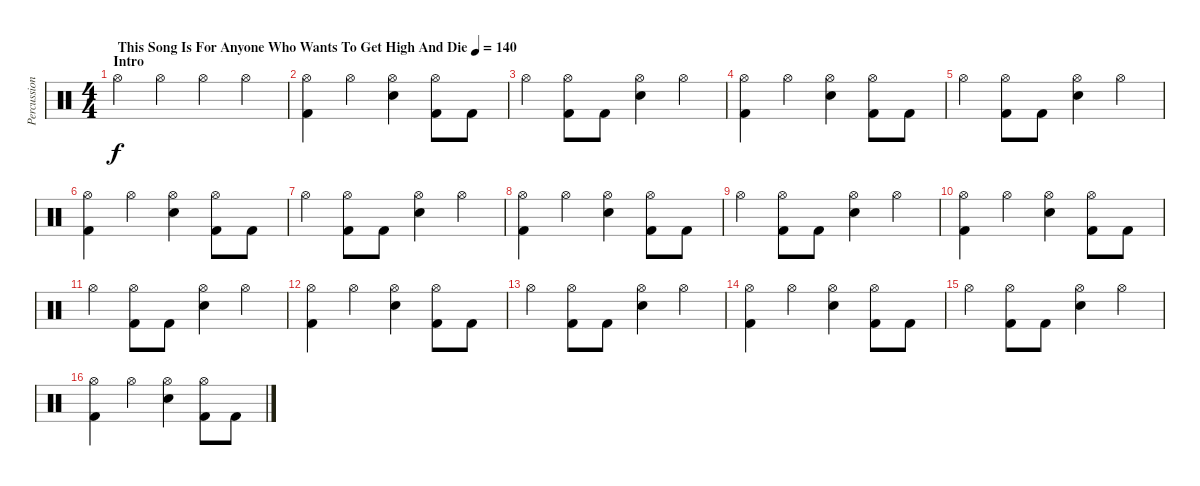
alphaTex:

\track ("Percussion" "Percussion") {instrument percussion}
\staff {score}
\articulation defaults
\ts (4 4)
\section ("" "Intro")
\tempo (140 "This Song Is For Anyone Who Wants To Get High And Die")
\clef neutral
\ks c "Hi-Hat (open)".4{dy f} "Hi-Hat (open)".4 "Hi-Hat (open)".4 "Hi-Hat (open)".4
|
("Hi-Hat (open)" "Kick (hit) 2").4 "Hi-Hat (open)".4 ("Hi-Hat (open)" "Electric Snare (hit)").4 ("Hi-Hat (open)" "Kick (hit) 2").8 "Kick (hit) 2".8 |
"Hi-Hat (open)".4 ("Hi-Hat (open)" "Kick (hit) 2").8 "Kick (hit) 2".8 ("Hi-Hat (open)" "Electric Snare (hit)").4 "Hi-Hat (open)".4 |
("Hi-Hat (open)" "Kick (hit) 2").4 "Hi-Hat (open)".4 ("Hi-Hat (open)" "Electric Snare (hit)").4 ("Hi-Hat (open)" "Kick (hit) 2").8 "Kick (hit) 2".8 |
"Hi-Hat (open)".4 ("Hi-Hat (open)" "Kick (hit) 2").8 "Kick (hit) 2".8 ("Hi-Hat (open)" "Electric Snare (hit)").4 "Hi-Hat (open)".4 |
("Hi-Hat (open)" "Kick (hit) 2").4 "Hi-Hat (open)".4 ("Hi-Hat (open)" "Electric Snare (hit)").4 ("Hi-Hat (open)" "Kick (hit) 2").8 "Kick (hit) 2".8 |
"Hi-Hat (open)".4 ("Hi-Hat (open)" "Kick (hit) 2").8 "Kick (hit) 2".8 ("Hi-Hat (open)" "Electric Snare (hit)").4 "Hi-Hat (open)".4 |
("Hi-Hat (open)" "Kick (hit) 2").4 "Hi-Hat (open)".4 ("Hi-Hat (open)" "Electric Snare (hit)").4 ("Hi-Hat (open)" "Kick (hit) 2").8 "Kick (hit) 2".8 |
"Hi-Hat (open)".4 ("Hi-Hat (open)" "Kick (hit) 2").8 "Kick (hit) 2".8 ("Hi-Hat (open)" "Electric Snare (hit)").4 "Hi-Hat (open)".4 |
("Hi-Hat (open)" "Kick (hit) 2").4 "Hi-Hat (open)".4 ("Hi-Hat (open)" "Electric Snare (hit)").4 ("Hi-Hat (open)" "Kick (hit) 2").8 "Kick (hit) 2".8 |
"Hi-Hat (open)".4 ("Hi-Hat (open)" "Kick (hit) 2").8 "Kick (hit) 2".8 ("Hi-Hat (open)" "Electric Snare (hit)").4 "Hi-Hat (open)".4 |
("Hi-Hat (open)" "Kick (hit) 2").4 "Hi-Hat (open)".4 ("Hi-Hat (open)" "Electric Snare (hit)").4 ("Hi-Hat (open)" "Kick (hit) 2").8 "Kick (hit) 2".8 |
"Hi-Hat (open)".4 ("Hi-Hat (open)" "Kick (hit) 2").8 "Kick (hit) 2".8 ("Hi-Hat (open)" "Electric Snare (hit)").4 "Hi-Hat (open)".4 |
("Hi-Hat (open)" "Kick (hit) 2").4 "Hi-Hat (open)".4 ("Hi-Hat (open)" "Electric Snare (hit)").4 ("Hi-Hat (open)" "Kick (hit) 2").8 "Kick (hit) 2".8 |
"Hi-Hat (open)".4 ("Hi-Hat (open)" "Kick (hit) 2").8 "Kick (hit) 2".8 ("Hi-Hat (open)" "Electric Snare (hit)").4 "Hi-Hat (open)".4 |
("Hi-Hat (open)" "Kick (hit) 2").4 "Hi-Hat (open)".4 ("Hi-Hat (open)" "Electric Snare (hit)").4 ("Hi-Hat (open)" "Kick (hit) 2").8 "Kick (hit) 2".8
